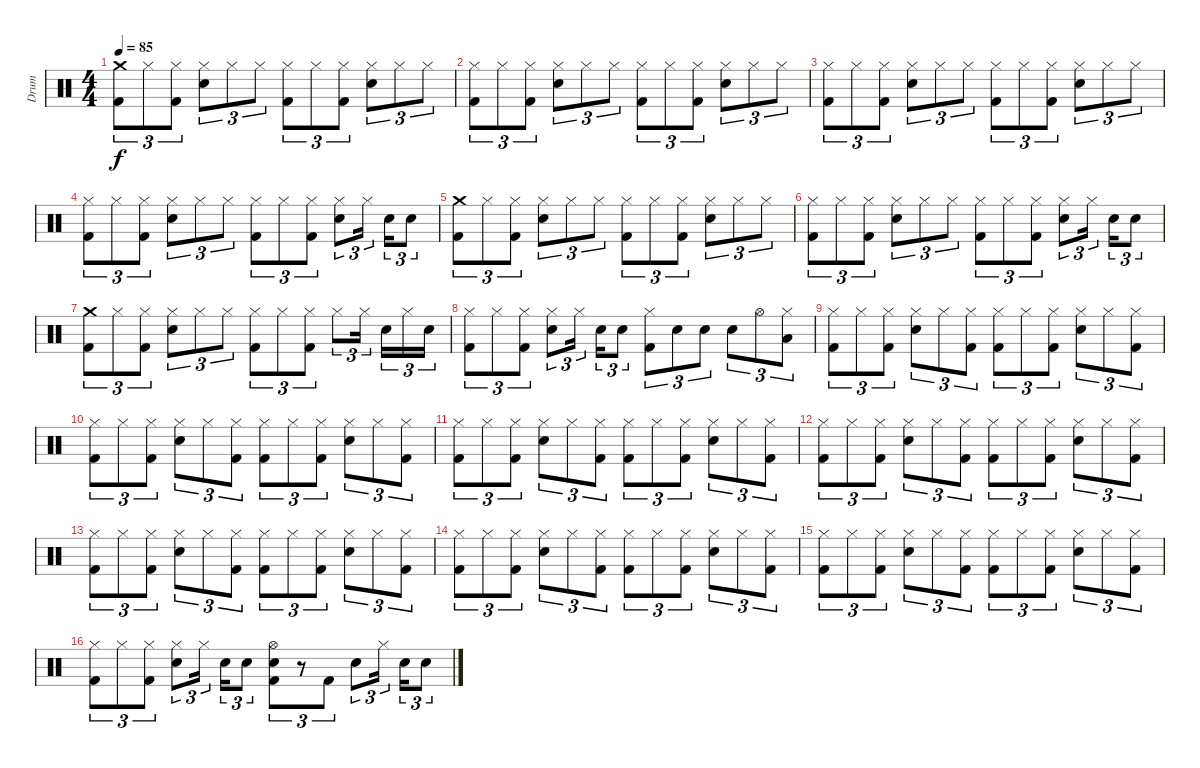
\track ("Drum" "Drum") {instrument percussion}
\staff {score}
\articulation defaults
\ts (4 4)
\tempo 85
\clef neutral
\ks c
("Crash medium (hit)" "Kick (hit) 2").8{tu (3 2) dy f} "Hi-Hat (closed)".8{tu (3 2)} ("Hi-Hat (closed)" "Kick (hit) 2").8{tu (3 2)} ("Hi-Hat (closed)" "Snare (hit) 2").8{tu (3 2)} "Hi-Hat (closed)".8{tu (3 2)} "Hi-Hat (closed)".8{tu (3 2)} ("Hi-Hat (closed)" "Kick (hit) 2").8{tu (3 2)} "Hi-Hat (closed)".8{tu (3 2)} ("Hi-Hat (closed)" "Kick (hit) 2").8{tu (3 2)} ("Hi-Hat (closed)" "Snare (hit) 2").8{tu (3 2)} "Hi-Hat (closed)".8{tu (3 2)} "Hi-Hat (closed)".8{tu (3 2)} |
("Hi-Hat (closed)" "Kick (hit) 2").8{tu (3 2)} "Hi-Hat (closed)".8{tu (3 2)} ("Hi-Hat (closed)" "Kick (hit) 2").8{tu (3 2)} ("Hi-Hat (closed)" "Snare (hit) 2").8{tu (3 2)} "Hi-Hat (closed)".8{tu (3 2)} "Hi-Hat (closed)".8{tu (3 2)} ("Hi-Hat (closed)" "Kick (hit) 2").8{tu (3 2)} "Hi-Hat (closed)".8{tu (3 2)} ("Hi-Hat (closed)" "Kick (hit) 2").8{tu (3 2)} ("Hi-Hat (closed)" "Snare (hit) 2").8{tu (3 2)} "Hi-Hat (closed)".8{tu (3 2)} "Hi-Hat (closed)".8{tu (3 2)} |
("Hi-Hat (closed)" "Kick (hit) 2").8{tu (3 2)} "Hi-Hat (closed)".8{tu (3 2)} ("Hi-Hat (closed)" "Kick (hit) 2").8{tu (3 2)} ("Hi-Hat (closed)" "Snare (hit) 2").8{tu (3 2)} "Hi-Hat (closed)".8{tu (3 2)} "Hi-Hat (closed)".8{tu (3 2)} ("Hi-Hat (closed)" "Kick (hit) 2").8{tu (3 2)} "Hi-Hat (closed)".8{tu (3 2)} ("Hi-Hat (closed)" "Kick (hit) 2").8{tu (3 2)} ("Hi-Hat (closed)" "Snare (hit) 2").8{tu (3 2)} "Hi-Hat (closed)".8{tu (3 2)} "Hi-Hat (closed)".8{tu (3 2)} |
("Hi-Hat (closed)" "Kick (hit) 2").8{tu (3 2)} "Hi-Hat (closed)".8{tu (3 2)} ("Hi-Hat (closed)" "Kick (hit) 2").8{tu (3 2)} ("Hi-Hat (closed)" "Snare (hit) 2").8{tu (3 2)} "Hi-Hat (closed)".8{tu (3 2)} "Hi-Hat (closed)".8{tu (3 2)} ("Hi-Hat (closed)" "Kick (hit) 2").8{tu (3 2)} "Hi-Hat (closed)".8{tu (3 2)} ("Hi-Hat (closed)" "Kick (hit) 2").8{tu (3 2)} ("Hi-Hat (closed)" "Snare (hit) 2").8{tu (3 2)} "Hi-Hat (closed)".16{tu (3 2)} "Snare (hit) 2".16{tu (3 2)} "Snare (hit) 2".8{tu (3 2)} |
("Crash medium (hit)" "Kick (hit) 2").8{tu (3 2)} "Hi-Hat (closed)".8{tu (3 2)} ("Hi-Hat (closed)" "Kick (hit) 2").8{tu (3 2)} ("Hi-Hat (closed)" "Snare (hit) 2").8{tu (3 2)} "Hi-Hat (closed)".8{tu (3 2)} "Hi-Hat (closed)".8{tu (3 2)} ("Hi-Hat (closed)" "Kick (hit) 2").8{tu (3 2)} "Hi-Hat (closed)".8{tu (3 2)} ("Hi-Hat (closed)" "Kick (hit) 2").8{tu (3 2)} ("Hi-Hat (closed)" "Snare (hit) 2").8{tu (3 2)} "Hi-Hat (closed)".8{tu (3 2)} "Hi-Hat (closed)".8{tu (3 2)} |
("Hi-Hat (closed)" "Kick (hit) 2").8{tu (3 2)} "Hi-Hat (closed)".8{tu (3 2)} ("Hi-Hat (closed)" "Kick (hit) 2").8{tu (3 2)} ("Hi-Hat (closed)" "Snare (hit) 2").8{tu (3 2)} "Hi-Hat (closed)".8{tu (3 2)} "Hi-Hat (closed)".8{tu (3 2)} ("Hi-Hat (closed)" "Kick (hit) 2").8{tu (3 2)} "Hi-Hat (closed)".8{tu (3 2)} ("Hi-Hat (closed)" "Kick (hit) 2").8{tu (3 2)} ("Hi-Hat (closed)" "Snare (hit) 2").8{tu (3 2)} "Hi-Hat (closed)".16{tu (3 2)} "Snare (hit) 2".16{tu (3 2)} "Snare (hit) 2".8{tu (3 2)} |
("Crash medium (hit)" "Kick (hit) 2").8{tu (3 2)} "Hi-Hat (closed)".8{tu (3 2)} ("Hi-Hat (closed)" "Kick (hit) 2").8{tu (3 2)} ("Hi-Hat (closed)" "Snare (hit) 2").8{tu (3 2)} "Hi-Hat (closed)".8{tu (3 2)} "Hi-Hat (closed)".8{tu (3 2)} ("Hi-Hat (closed)" "Kick (hit) 2").8{tu (3 2)} "Hi-Hat (closed)".8{tu (3 2)} ("Hi-Hat (closed)" "Kick (hit) 2").8{tu (3 2)} "Hi-Hat (closed)".8{tu (3 2)} "Hi-Hat (closed)".16{tu (3 2)} "Snare (hit) 2".16{tu (3 2)} "Hi-Hat (closed)".16{tu (3 2)} "Snare (hit) 2".16{tu (3 2)} |
("Hi-Hat (closed)" "Kick (hit) 2").8{tu (3 2)} "Hi-Hat (closed)".8{tu (3 2)} ("Hi-Hat (closed)" "Kick (hit) 2").8{tu (3 2)} ("Hi-Hat (closed)" "Snare (hit) 2").8{tu (3 2)} "Hi-Hat (closed)".16{tu (3 2)} "Snare (hit) 2".16{tu (3 2)} "Snare (hit) 2".8{tu (3 2)} ("Hi-Hat (closed)" "Kick (hit) 2").8{tu (3 2)} "Snare (hit) 2".8{tu (3 2)} "Snare (hit) 2".8{tu (3 2)} "Snare (hit) 2".8{tu (3 2)} "Hi-Hat (open)".8{tu (3 2)} ("Hi-Hat (closed)" "Low Tom (hit)").8{tu (3 2)} |
("Hi-Hat (closed)" "Kick (hit) 2").8{tu (3 2)} "Hi-Hat (closed)".8{tu (3 2)} ("Hi-Hat (closed)" "Kick (hit) 2").8{tu (3 2)} ("Hi-Hat (closed)" "Snare (hit) 2").8{tu (3 2)} "Hi-Hat (closed)".8{tu (3 2)} ("Hi-Hat (closed)" "Kick (hit) 2").8{tu (3 2)} ("Hi-Hat (closed)" "Kick (hit) 2").8{tu (3 2)} "Hi-Hat (closed)".8{tu (3 2)} ("Hi-Hat (closed)" "Kick (hit) 2").8{tu (3 2)} ("Hi-Hat (closed)" "Snare (hit) 2").8{tu (3 2)} "Hi-Hat (closed)".8{tu (3 2)} ("Hi-Hat (closed)" "Kick (hit) 2").8{tu (3 2)} |
("Hi-Hat (closed)" "Kick (hit) 2").8{tu (3 2)} "Hi-Hat (closed)".8{tu (3 2)} ("Hi-Hat (closed)" "Kick (hit) 2").8{tu (3 2)} ("Hi-Hat (closed)" "Snare (hit) 2").8{tu (3 2)} "Hi-Hat (closed)".8{tu (3 2)} ("Hi-Hat (closed)" "Kick (hit) 2").8{tu (3 2)} ("Hi-Hat (closed)" "Kick (hit) 2").8{tu (3 2)} "Hi-Hat (closed)".8{tu (3 2)} ("Hi-Hat (closed)" "Kick (hit) 2").8{tu (3 2)} ("Hi-Hat (closed)" "Snare (hit) 2").8{tu (3 2)} "Hi-Hat (closed)".8{tu (3 2)} ("Hi-Hat (closed)" "Kick (hit) 2").8{tu (3 2)} |
("Hi-Hat (closed)" "Kick (hit) 2").8{tu (3 2)} "Hi-Hat (closed)".8{tu (3 2)} ("Hi-Hat (closed)" "Kick (hit) 2").8{tu (3 2)} ("Hi-Hat (closed)" "Snare (hit) 2").8{tu (3 2)} "Hi-Hat (closed)".8{tu (3 2)} ("Hi-Hat (closed)" "Kick (hit) 2").8{tu (3 2)} ("Hi-Hat (closed)" "Kick (hit) 2").8{tu (3 2)} "Hi-Hat (closed)".8{tu (3 2)} ("Hi-Hat (closed)" "Kick (hit) 2").8{tu (3 2)} ("Hi-Hat (closed)" "Snare (hit) 2").8{tu (3 2)} "Hi-Hat (closed)".8{tu (3 2)} ("Hi-Hat (closed)" "Kick (hit) 2").8{tu (3 2)} |
("Hi-Hat (closed)" "Kick (hit) 2").8{tu (3 2)} "Hi-Hat (closed)".8{tu (3 2)} ("Hi-Hat (closed)" "Kick (hit) 2").8{tu (3 2)} ("Hi-Hat (closed)" "Snare (hit) 2").8{tu (3 2)} "Hi-Hat (closed)".8{tu (3 2)} ("Hi-Hat (closed)" "Kick (hit) 2").8{tu (3 2)} ("Hi-Hat (closed)" "Kick (hit) 2").8{tu (3 2)} "Hi-Hat (closed)".8{tu (3 2)} ("Hi-Hat (closed)" "Kick (hit) 2").8{tu (3 2)} ("Hi-Hat (closed)" "Snare (hit) 2").8{tu (3 2)} "Hi-Hat (closed)".8{tu (3 2)} ("Hi-Hat (closed)" "Kick (hit) 2").8{tu (3 2)} |
("Hi-Hat (closed)" "Kick (hit) 2").8{tu (3 2)} "Hi-Hat (closed)".8{tu (3 2)} ("Hi-Hat (closed)" "Kick (hit) 2").8{tu (3 2)} ("Hi-Hat (closed)" "Snare (hit) 2").8{tu (3 2)} "Hi-Hat (closed)".8{tu (3 2)} ("Hi-Hat (closed)" "Kick (hit) 2").8{tu (3 2)} ("Hi-Hat (closed)" "Kick (hit) 2").8{tu (3 2)} "Hi-Hat (closed)".8{tu (3 2)} ("Hi-Hat (closed)" "Kick (hit) 2").8{tu (3 2)} ("Hi-Hat (closed)" "Snare (hit) 2").8{tu (3 2)} "Hi-Hat (closed)".8{tu (3 2)} ("Hi-Hat (closed)" "Kick (hit) 2").8{tu (3 2)} |
("Hi-Hat (closed)" "Kick (hit) 2").8{tu (3 2)} "Hi-Hat (closed)".8{tu (3 2)} ("Hi-Hat (closed)" "Kick (hit) 2").8{tu (3 2)} ("Hi-Hat (closed)" "Snare (hit) 2").8{tu (3 2)} "Hi-Hat (closed)".8{tu (3 2)} ("Hi-Hat (closed)" "Kick (hit) 2").8{tu (3 2)} ("Hi-Hat (closed)" "Kick (hit) 2").8{tu (3 2)} "Hi-Hat (closed)".8{tu (3 2)} ("Hi-Hat (closed)" "Kick (hit) 2").8{tu (3 2)} ("Hi-Hat (closed)" "Snare (hit) 2").8{tu (3 2)} "Hi-Hat (closed)".8{tu (3 2)} ("Hi-Hat (closed)" "Kick (hit) 2").8{tu (3 2)} |
("Hi-Hat (closed)" "Kick (hit) 2").8{tu (3 2)} "Hi-Hat (closed)".8{tu (3 2)} ("Hi-Hat (closed)" "Kick (hit) 2").8{tu (3 2)} ("Hi-Hat (closed)" "Snare (hit) 2").8{tu (3 2)} "Hi-Hat (closed)".8{tu (3 2)} ("Hi-Hat (closed)" "Kick (hit) 2").8{tu (3 2)} ("Hi-Hat (closed)" "Kick (hit) 2").8{tu (3 2)} "Hi-Hat (closed)".8{tu (3 2)} ("Hi-Hat (closed)" "Kick (hit) 2").8{tu (3 2)} ("Hi-Hat (closed)" "Snare (hit) 2").8{tu (3 2)} "Hi-Hat (closed)".8{tu (3 2)} ("Hi-Hat (closed)" "Kick (hit) 2").8{tu (3 2)} |
("Hi-Hat (closed)" "Kick (hit) 2").8{tu (3 2)} "Hi-Hat (closed)".8{tu (3 2)} ("Hi-Hat (closed)" "Kick (hit) 2").8{tu (3 2)} ("Hi-Hat (closed)" "Snare (hit) 2").8{tu (3 2)} "Hi-Hat (closed)".16{tu (3 2)} "Snare (hit) 2".16{tu (3 2)} "Snare (hit) 2".8{tu (3 2)} ("Hi-Hat (open)" "Snare (hit) 2" "Kick (hit) 2").8{tu (3 2)} r.8{tu (3 2)} "Kick (hit) 2".8{tu (3 2)} "Snare (hit) 2".8{tu (3 2)} "Hi-Hat (closed)".16{tu (3 2)} "Snare (hit) 2".16{tu (3 2)} "Snare (hit) 2".8{tu (3 2)}
